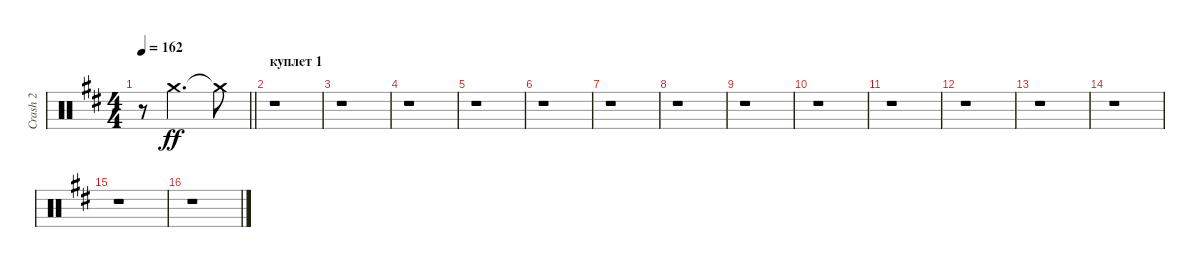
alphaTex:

\track ("Сrash 2" "Сrash 2") {instrument percussion}
\staff {score}
\articulation defaults
\ts (4 4)
\tempo 162
\clef neutral
\barLineRight lightlight
\ks bminor
r.8{dy ff} "Crash medium (hit)".2{d} "Crash medium (hit)"{t}.8 |
\section ("" "куплет 1")
r.1 |
r.1 |
r.1 |
r.1 |
r.1 |
r.1 |
r.1 |
r.1 |
r.1 |
r.1 |
r.1 |
r.1 |
r.1 |
r.1 |
r.1
